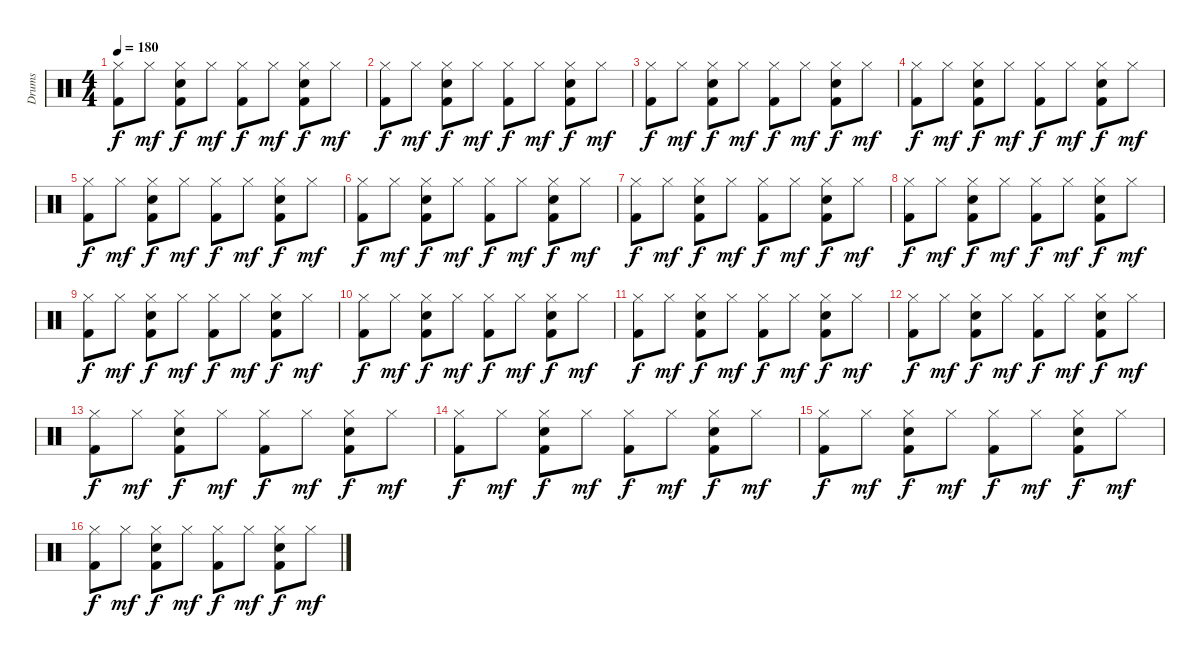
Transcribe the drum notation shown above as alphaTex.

\track ("Drums" "Drums") {instrument percussion}
\staff {score}
\articulation defaults
\ts (4 4)
\tempo 180
\clef neutral
\ks c
("Hi-Hat (closed)" "Kick (hit) 2").8{dy f} "Hi-Hat (closed)".8{dy mf} ("Hi-Hat (closed)" "Electric Snare (hit)" "Kick (hit) 2").8{dy f} "Hi-Hat (closed)".8{dy mf} ("Hi-Hat (closed)" "Kick (hit) 2").8{dy f} "Hi-Hat (closed)".8{dy mf} ("Hi-Hat (closed)" "Electric Snare (hit)" "Kick (hit) 2").8{dy f} "Hi-Hat (closed)".8{dy mf} |
("Hi-Hat (closed)" "Kick (hit) 2").8{dy f} "Hi-Hat (closed)".8{dy mf} ("Hi-Hat (closed)" "Electric Snare (hit)" "Kick (hit) 2").8{dy f} "Hi-Hat (closed)".8{dy mf} ("Hi-Hat (closed)" "Kick (hit) 2").8{dy f} "Hi-Hat (closed)".8{dy mf} ("Hi-Hat (closed)" "Electric Snare (hit)" "Kick (hit) 2").8{dy f} "Hi-Hat (closed)".8{dy mf} |
("Hi-Hat (closed)" "Kick (hit) 2").8{dy f} "Hi-Hat (closed)".8{dy mf} ("Hi-Hat (closed)" "Electric Snare (hit)" "Kick (hit) 2").8{dy f} "Hi-Hat (closed)".8{dy mf} ("Hi-Hat (closed)" "Kick (hit) 2").8{dy f} "Hi-Hat (closed)".8{dy mf} ("Hi-Hat (closed)" "Electric Snare (hit)" "Kick (hit) 2").8{dy f} "Hi-Hat (closed)".8{dy mf} |
("Hi-Hat (closed)" "Kick (hit) 2").8{dy f} "Hi-Hat (closed)".8{dy mf} ("Hi-Hat (closed)" "Electric Snare (hit)" "Kick (hit) 2").8{dy f} "Hi-Hat (closed)".8{dy mf} ("Hi-Hat (closed)" "Kick (hit) 2").8{dy f} "Hi-Hat (closed)".8{dy mf} ("Hi-Hat (closed)" "Electric Snare (hit)" "Kick (hit) 2").8{dy f} "Hi-Hat (closed)".8{dy mf} |
("Hi-Hat (closed)" "Kick (hit) 2").8{dy f} "Hi-Hat (closed)".8{dy mf} ("Hi-Hat (closed)" "Electric Snare (hit)" "Kick (hit) 2").8{dy f} "Hi-Hat (closed)".8{dy mf} ("Hi-Hat (closed)" "Kick (hit) 2").8{dy f} "Hi-Hat (closed)".8{dy mf} ("Hi-Hat (closed)" "Electric Snare (hit)" "Kick (hit) 2").8{dy f} "Hi-Hat (closed)".8{dy mf} |
("Hi-Hat (closed)" "Kick (hit) 2").8{dy f} "Hi-Hat (closed)".8{dy mf} ("Hi-Hat (closed)" "Electric Snare (hit)" "Kick (hit) 2").8{dy f} "Hi-Hat (closed)".8{dy mf} ("Hi-Hat (closed)" "Kick (hit) 2").8{dy f} "Hi-Hat (closed)".8{dy mf} ("Hi-Hat (closed)" "Electric Snare (hit)" "Kick (hit) 2").8{dy f} "Hi-Hat (closed)".8{dy mf} |
("Hi-Hat (closed)" "Kick (hit) 2").8{dy f} "Hi-Hat (closed)".8{dy mf} ("Hi-Hat (closed)" "Electric Snare (hit)" "Kick (hit) 2").8{dy f} "Hi-Hat (closed)".8{dy mf} ("Hi-Hat (closed)" "Kick (hit) 2").8{dy f} "Hi-Hat (closed)".8{dy mf} ("Hi-Hat (closed)" "Electric Snare (hit)" "Kick (hit) 2").8{dy f} "Hi-Hat (closed)".8{dy mf} |
("Hi-Hat (closed)" "Kick (hit) 2").8{dy f} "Hi-Hat (closed)".8{dy mf} ("Hi-Hat (closed)" "Electric Snare (hit)" "Kick (hit) 2").8{dy f} "Hi-Hat (closed)".8{dy mf} ("Hi-Hat (closed)" "Kick (hit) 2").8{dy f} "Hi-Hat (closed)".8{dy mf} ("Hi-Hat (closed)" "Electric Snare (hit)" "Kick (hit) 2").8{dy f} "Hi-Hat (closed)".8{dy mf} |
("Hi-Hat (closed)" "Kick (hit) 2").8{dy f} "Hi-Hat (closed)".8{dy mf} ("Hi-Hat (closed)" "Electric Snare (hit)" "Kick (hit) 2").8{dy f} "Hi-Hat (closed)".8{dy mf} ("Hi-Hat (closed)" "Kick (hit) 2").8{dy f} "Hi-Hat (closed)".8{dy mf} ("Hi-Hat (closed)" "Electric Snare (hit)" "Kick (hit) 2").8{dy f} "Hi-Hat (closed)".8{dy mf} |
("Hi-Hat (closed)" "Kick (hit) 2").8{dy f} "Hi-Hat (closed)".8{dy mf} ("Hi-Hat (closed)" "Electric Snare (hit)" "Kick (hit) 2").8{dy f} "Hi-Hat (closed)".8{dy mf} ("Hi-Hat (closed)" "Kick (hit) 2").8{dy f} "Hi-Hat (closed)".8{dy mf} ("Hi-Hat (closed)" "Electric Snare (hit)" "Kick (hit) 2").8{dy f} "Hi-Hat (closed)".8{dy mf} |
("Hi-Hat (closed)" "Kick (hit) 2").8{dy f} "Hi-Hat (closed)".8{dy mf} ("Hi-Hat (closed)" "Electric Snare (hit)" "Kick (hit) 2").8{dy f} "Hi-Hat (closed)".8{dy mf} ("Hi-Hat (closed)" "Kick (hit) 2").8{dy f} "Hi-Hat (closed)".8{dy mf} ("Hi-Hat (closed)" "Electric Snare (hit)" "Kick (hit) 2").8{dy f} "Hi-Hat (closed)".8{dy mf} |
("Hi-Hat (closed)" "Kick (hit) 2").8{dy f} "Hi-Hat (closed)".8{dy mf} ("Hi-Hat (closed)" "Electric Snare (hit)" "Kick (hit) 2").8{dy f} "Hi-Hat (closed)".8{dy mf} ("Hi-Hat (closed)" "Kick (hit) 2").8{dy f} "Hi-Hat (closed)".8{dy mf} ("Hi-Hat (closed)" "Electric Snare (hit)" "Kick (hit) 2").8{dy f} "Hi-Hat (closed)".8{dy mf} |
("Hi-Hat (closed)" "Kick (hit) 2").8{dy f} "Hi-Hat (closed)".8{dy mf} ("Hi-Hat (closed)" "Electric Snare (hit)" "Kick (hit) 2").8{dy f} "Hi-Hat (closed)".8{dy mf} ("Hi-Hat (closed)" "Kick (hit) 2").8{dy f} "Hi-Hat (closed)".8{dy mf} ("Hi-Hat (closed)" "Electric Snare (hit)" "Kick (hit) 2").8{dy f} "Hi-Hat (closed)".8{dy mf} |
("Hi-Hat (closed)" "Kick (hit) 2").8{dy f} "Hi-Hat (closed)".8{dy mf} ("Hi-Hat (closed)" "Electric Snare (hit)" "Kick (hit) 2").8{dy f} "Hi-Hat (closed)".8{dy mf} ("Hi-Hat (closed)" "Kick (hit) 2").8{dy f} "Hi-Hat (closed)".8{dy mf} ("Hi-Hat (closed)" "Electric Snare (hit)" "Kick (hit) 2").8{dy f} "Hi-Hat (closed)".8{dy mf} |
("Hi-Hat (closed)" "Kick (hit) 2").8{dy f} "Hi-Hat (closed)".8{dy mf} ("Hi-Hat (closed)" "Electric Snare (hit)" "Kick (hit) 2").8{dy f} "Hi-Hat (closed)".8{dy mf} ("Hi-Hat (closed)" "Kick (hit) 2").8{dy f} "Hi-Hat (closed)".8{dy mf} ("Hi-Hat (closed)" "Electric Snare (hit)" "Kick (hit) 2").8{dy f} "Hi-Hat (closed)".8{dy mf} |
("Hi-Hat (closed)" "Kick (hit) 2").8{dy f} "Hi-Hat (closed)".8{dy mf} ("Hi-Hat (closed)" "Electric Snare (hit)" "Kick (hit) 2").8{dy f} "Hi-Hat (closed)".8{dy mf} ("Hi-Hat (closed)" "Kick (hit) 2").8{dy f} "Hi-Hat (closed)".8{dy mf} ("Hi-Hat (closed)" "Electric Snare (hit)" "Kick (hit) 2").8{dy f} "Hi-Hat (closed)".8{dy mf}
